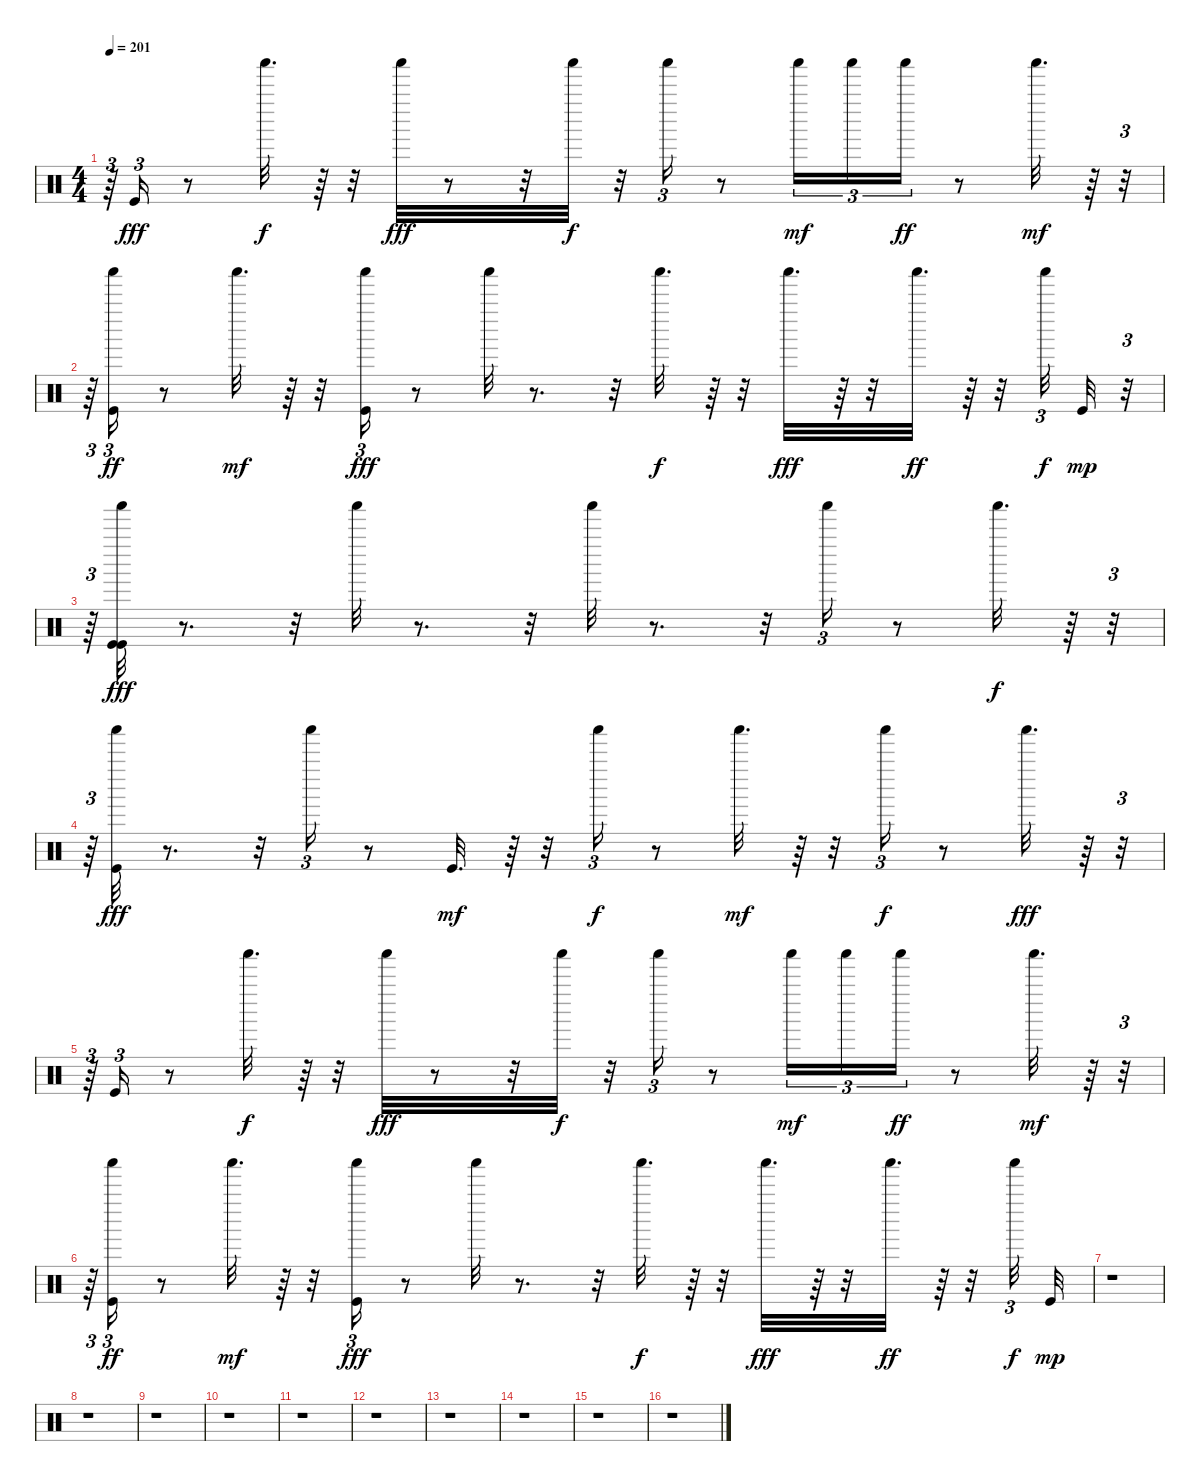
\track "" {instrument percussion}
\staff {score}
\articulation defaults
\ts (4 4)
\tempo 201
\clef neutral
\ks c
r.64{tu (3 2) dy fff} "Kick (hit)".16{tu (3 2)} r.8 "Shaker (hit)".32{d dy f} r.64 r.32 "Shaker (hit)".32{dy fff} r.8 r.32 "Shaker (hit)".32{dy f} r.32 "Shaker (hit)".16{tu (3 2)} r.8 "Shaker (hit)".16{tu (3 2) dy mf} "Shaker (hit)".16{tu (3 2)} "Shaker (hit)".16{tu (3 2) dy ff} r.8 "Shaker (hit)".32{d dy mf} r.64 r.32{tu (3 2)} |
r.64{tu (3 2)} ("Shaker (hit)" "Kick (hit)").16{tu (3 2) dy ff} r.8 "Shaker (hit)".32{d dy mf} r.64 r.32 ("Shaker (hit)" "Kick (hit)").16{tu (3 2) dy fff} r.8 "Shaker (hit)".32 r.8{d} r.32 "Shaker (hit)".32{d dy f} r.64 r.32 "Shaker (hit)".32{d dy fff} r.64 r.32 "Shaker (hit)".32{d dy ff} r.64 r.32 "Shaker (hit)".32{tu (3 2) dy f} "Kick (hit)".32{dy mp} r.32{tu (3 2)} |
r.64{tu (3 2)} ("Shaker (hit)" "Kick (hit)" "Kick (hit)").32{dy fff} r.8{d} r.32 "Shaker (hit)".32 r.8{d} r.32 "Shaker (hit)".32 r.8{d} r.32 "Shaker (hit)".16{tu (3 2)} r.8 "Shaker (hit)".32{d dy f} r.64 r.32{tu (3 2)} |
r.64{tu (3 2)} ("Shaker (hit)" "Kick (hit)").32{dy fff} r.8{d} r.32 "Shaker (hit)".16{tu (3 2)} r.8 "Kick (hit)".32{d dy mf} r.64 r.32 "Shaker (hit)".16{tu (3 2) dy f} r.8 "Shaker (hit)".32{d dy mf} r.64 r.32 "Shaker (hit)".16{tu (3 2) dy f} r.8 "Shaker (hit)".32{d dy fff} r.64 r.32{tu (3 2)} |
r.64{tu (3 2)} "Kick (hit)".16{tu (3 2)} r.8 "Shaker (hit)".32{d dy f} r.64 r.32 "Shaker (hit)".32{dy fff} r.8 r.32 "Shaker (hit)".32{dy f} r.32 "Shaker (hit)".16{tu (3 2)} r.8 "Shaker (hit)".16{tu (3 2) dy mf} "Shaker (hit)".16{tu (3 2)} "Shaker (hit)".16{tu (3 2) dy ff} r.8 "Shaker (hit)".32{d dy mf} r.64 r.32{tu (3 2)} |
r.64{tu (3 2)} ("Shaker (hit)" "Kick (hit)").16{tu (3 2) dy ff} r.8 "Shaker (hit)".32{d dy mf} r.64 r.32 ("Shaker (hit)" "Kick (hit)").16{tu (3 2) dy fff} r.8 "Shaker (hit)".32 r.8{d} r.32 "Shaker (hit)".32{d dy f} r.64 r.32 "Shaker (hit)".32{d dy fff} r.64 r.32 "Shaker (hit)".32{d dy ff} r.64 r.32 "Shaker (hit)".32{tu (3 2) dy f} "Kick (hit)".32{dy mp} |
r.1 |
r.1 |
r.1 |
r.1 |
r.1 |
r.1 |
r.1 |
r.1 |
r.1 |
r.1
